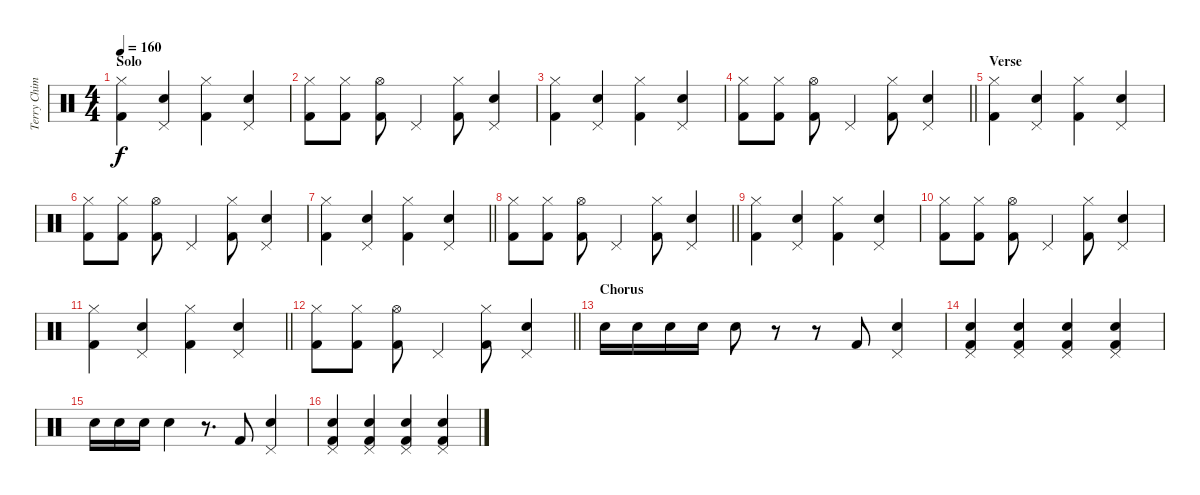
\track ("Terry Chimes - Drums" "Terry Chim") {instrument percussion}
\staff {score}
\articulation defaults
\ts (4 4)
\section ("" "Solo")
\tempo 160
\clef neutral
\ks c
("Hi-Hat (closed)" "Kick (hit) 2").4{dy f} ("Pedal Hi-Hat (hit)" "Snare (hit) 2").4 ("Hi-Hat (closed)" "Kick (hit) 2").4 ("Pedal Hi-Hat (hit)" "Snare (hit) 2").4 |
("Hi-Hat (closed)" "Kick (hit) 2").8 ("Hi-Hat (closed)" "Kick (hit) 2").8 ("Hi-Hat (open)" "Kick (hit) 2").8 "Pedal Hi-Hat (hit)".4 ("Hi-Hat (closed)" "Kick (hit) 2").8 ("Pedal Hi-Hat (hit)" "Snare (hit) 2").4 |
("Hi-Hat (closed)" "Kick (hit) 2").4 ("Pedal Hi-Hat (hit)" "Snare (hit) 2").4 ("Hi-Hat (closed)" "Kick (hit) 2").4 ("Pedal Hi-Hat (hit)" "Snare (hit) 2").4 |
\barLineRight lightlight
("Hi-Hat (closed)" "Kick (hit) 2").8 ("Hi-Hat (closed)" "Kick (hit) 2").8 ("Hi-Hat (open)" "Kick (hit) 2").8 "Pedal Hi-Hat (hit)".4 ("Hi-Hat (closed)" "Kick (hit) 2").8 ("Pedal Hi-Hat (hit)" "Snare (hit) 2").4 |
\section ("" "Verse")
("Hi-Hat (closed)" "Kick (hit) 2").4 ("Pedal Hi-Hat (hit)" "Snare (hit) 2").4 ("Hi-Hat (closed)" "Kick (hit) 2").4 ("Pedal Hi-Hat (hit)" "Snare (hit) 2").4 |
("Hi-Hat (closed)" "Kick (hit) 2").8 ("Hi-Hat (closed)" "Kick (hit) 2").8 ("Hi-Hat (open)" "Kick (hit) 2").8 "Pedal Hi-Hat (hit)".4 ("Hi-Hat (closed)" "Kick (hit) 2").8 ("Pedal Hi-Hat (hit)" "Snare (hit) 2").4 |
\barLineRight lightlight
("Hi-Hat (closed)" "Kick (hit) 2").4 ("Pedal Hi-Hat (hit)" "Snare (hit) 2").4 ("Hi-Hat (closed)" "Kick (hit) 2").4 ("Pedal Hi-Hat (hit)" "Snare (hit) 2").4 |
\barLineRight lightlight
("Hi-Hat (closed)" "Kick (hit) 2").8 ("Hi-Hat (closed)" "Kick (hit) 2").8 ("Hi-Hat (open)" "Kick (hit) 2").8 "Pedal Hi-Hat (hit)".4 ("Hi-Hat (closed)" "Kick (hit) 2").8 ("Pedal Hi-Hat (hit)" "Snare (hit) 2").4 |
("Hi-Hat (closed)" "Kick (hit) 2").4 ("Pedal Hi-Hat (hit)" "Snare (hit) 2").4 ("Hi-Hat (closed)" "Kick (hit) 2").4 ("Pedal Hi-Hat (hit)" "Snare (hit) 2").4 |
("Hi-Hat (closed)" "Kick (hit) 2").8 ("Hi-Hat (closed)" "Kick (hit) 2").8 ("Hi-Hat (open)" "Kick (hit) 2").8 "Pedal Hi-Hat (hit)".4 ("Hi-Hat (closed)" "Kick (hit) 2").8 ("Pedal Hi-Hat (hit)" "Snare (hit) 2").4 |
\barLineRight lightlight
("Hi-Hat (closed)" "Kick (hit) 2").4 ("Pedal Hi-Hat (hit)" "Snare (hit) 2").4 ("Hi-Hat (closed)" "Kick (hit) 2").4 ("Pedal Hi-Hat (hit)" "Snare (hit) 2").4 |
\barLineRight lightlight
("Hi-Hat (closed)" "Kick (hit) 2").8 ("Hi-Hat (closed)" "Kick (hit) 2").8 ("Hi-Hat (open)" "Kick (hit) 2").8 "Pedal Hi-Hat (hit)".4 ("Hi-Hat (closed)" "Kick (hit) 2").8 ("Pedal Hi-Hat (hit)" "Snare (hit) 2").4 |
\section ("" "Chorus")
"Snare (hit) 2".16 "Snare (hit) 2".16 "Snare (hit) 2".16 "Snare (hit) 2".16 "Snare (hit) 2".8 r.8 r.8 "Kick (hit) 2".8 ("Pedal Hi-Hat (hit)" "Snare (hit) 2").4 |
("Pedal Hi-Hat (hit)" "Snare (hit) 2" "Kick (hit) 2").4 ("Pedal Hi-Hat (hit)" "Snare (hit) 2" "Kick (hit) 2").4 ("Pedal Hi-Hat (hit)" "Snare (hit) 2" "Kick (hit) 2").4 ("Pedal Hi-Hat (hit)" "Snare (hit) 2" "Kick (hit) 2").4 |
"Snare (hit) 2".16 "Snare (hit) 2".16 "Snare (hit) 2".16 "Snare (hit) 2".4 r.8{d} "Kick (hit) 2".8 ("Pedal Hi-Hat (hit)" "Snare (hit) 2").4 |
("Pedal Hi-Hat (hit)" "Snare (hit) 2" "Kick (hit) 2").4 ("Pedal Hi-Hat (hit)" "Snare (hit) 2" "Kick (hit) 2").4 ("Pedal Hi-Hat (hit)" "Snare (hit) 2" "Kick (hit) 2").4 ("Pedal Hi-Hat (hit)" "Snare (hit) 2" "Kick (hit) 2").4
